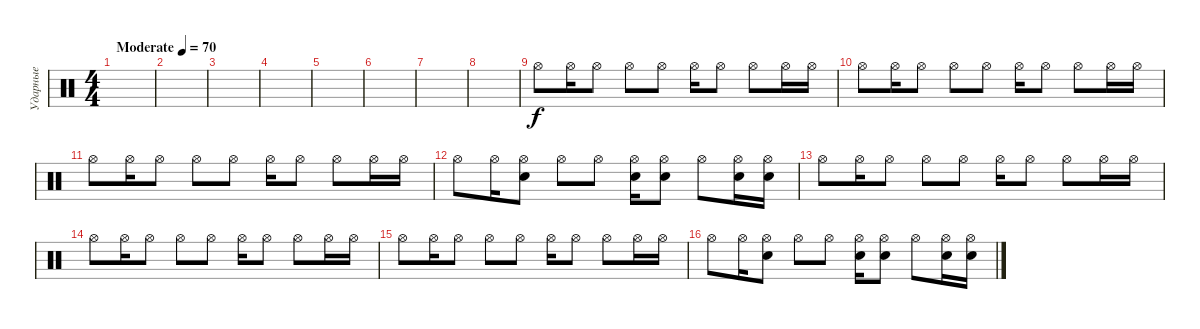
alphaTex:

\track ("Ударные" "Ударные") {instrument percussion}
\staff {score}
\articulation defaults
\ts (4 4)
\tempo (70 "Moderate")
\clef neutral
\ks c
|
|
|
|
|
|
|
|
"Hi-Hat (open)".8 "Hi-Hat (open)".16 "Hi-Hat (open)".8 "Hi-Hat (open)".8 "Hi-Hat (open)".8 "Hi-Hat (open)".16 "Hi-Hat (open)".8 "Hi-Hat (open)".8 "Hi-Hat (open)".16 "Hi-Hat (open)".16 |
"Hi-Hat (open)".8 "Hi-Hat (open)".16 "Hi-Hat (open)".8 "Hi-Hat (open)".8 "Hi-Hat (open)".8 "Hi-Hat (open)".16 "Hi-Hat (open)".8 "Hi-Hat (open)".8 "Hi-Hat (open)".16 "Hi-Hat (open)".16 |
"Hi-Hat (open)".8 "Hi-Hat (open)".16 "Hi-Hat (open)".8 "Hi-Hat (open)".8 "Hi-Hat (open)".8 "Hi-Hat (open)".16 "Hi-Hat (open)".8 "Hi-Hat (open)".8 "Hi-Hat (open)".16 "Hi-Hat (open)".16 |
"Hi-Hat (open)".8 "Hi-Hat (open)".16 ("Electric Snare (hit)" "Hi-Hat (open)").8 "Hi-Hat (open)".8 "Hi-Hat (open)".8 ("Electric Snare (hit)" "Hi-Hat (open)").16 ("Electric Snare (hit)" "Hi-Hat (open)").8 "Hi-Hat (open)".8 ("Electric Snare (hit)" "Hi-Hat (open)").16 ("Electric Snare (hit)" "Hi-Hat (open)").16 |
"Hi-Hat (open)".8 "Hi-Hat (open)".16 "Hi-Hat (open)".8 "Hi-Hat (open)".8 "Hi-Hat (open)".8 "Hi-Hat (open)".16 "Hi-Hat (open)".8 "Hi-Hat (open)".8 "Hi-Hat (open)".16 "Hi-Hat (open)".16 |
"Hi-Hat (open)".8 "Hi-Hat (open)".16 "Hi-Hat (open)".8 "Hi-Hat (open)".8 "Hi-Hat (open)".8 "Hi-Hat (open)".16 "Hi-Hat (open)".8 "Hi-Hat (open)".8 "Hi-Hat (open)".16 "Hi-Hat (open)".16 |
"Hi-Hat (open)".8 "Hi-Hat (open)".16 "Hi-Hat (open)".8 "Hi-Hat (open)".8 "Hi-Hat (open)".8 "Hi-Hat (open)".16 "Hi-Hat (open)".8 "Hi-Hat (open)".8 "Hi-Hat (open)".16 "Hi-Hat (open)".16 |
"Hi-Hat (open)".8 "Hi-Hat (open)".16 ("Electric Snare (hit)" "Hi-Hat (open)").8 "Hi-Hat (open)".8 "Hi-Hat (open)".8 ("Electric Snare (hit)" "Hi-Hat (open)").16 ("Electric Snare (hit)" "Hi-Hat (open)").8 "Hi-Hat (open)".8 ("Electric Snare (hit)" "Hi-Hat (open)").16 ("Electric Snare (hit)" "Hi-Hat (open)").16
